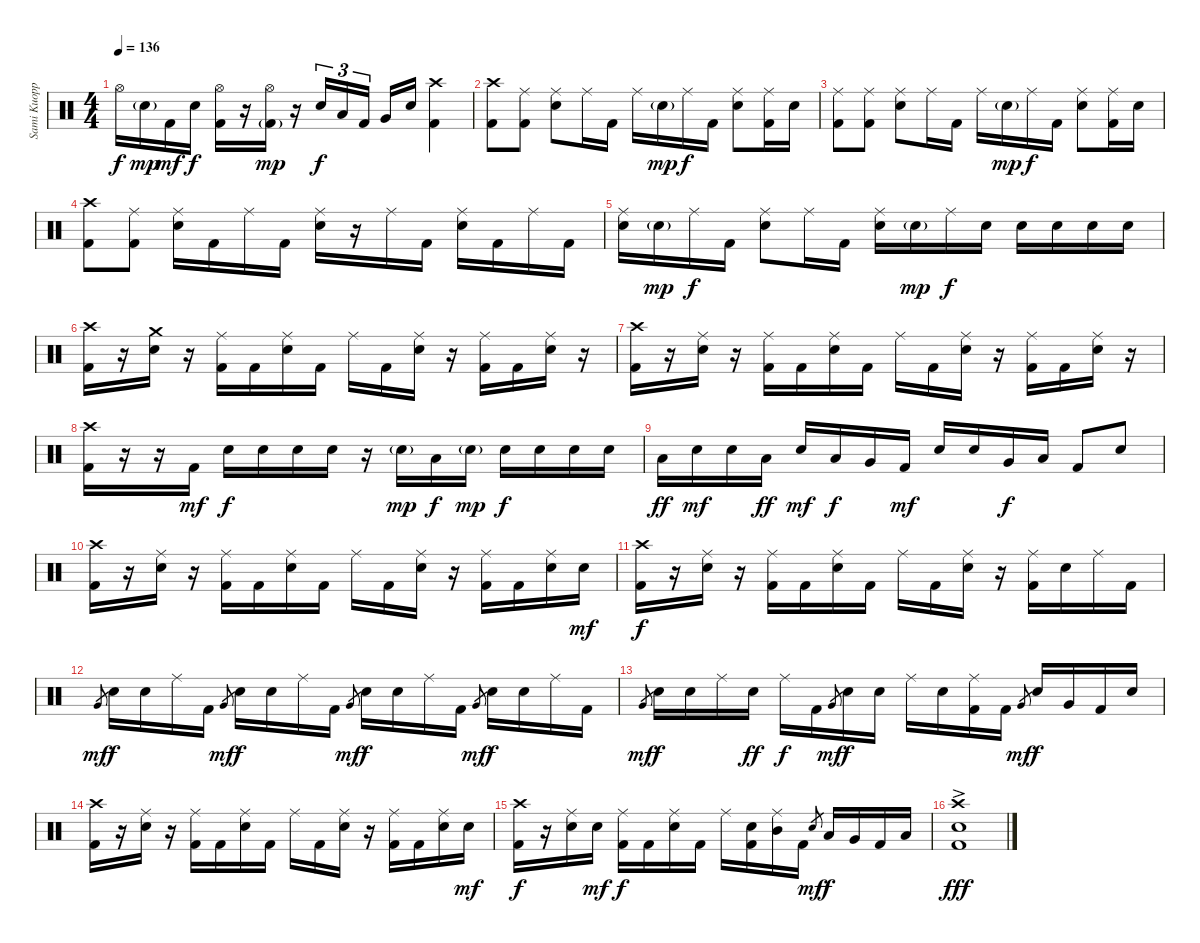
\track ("Sami Kuoppamäki - Drums" "Sami Kuopp") {instrument percussion}
\staff {score}
\articulation defaults
\ts (4 4)
\tempo 136
\clef neutral
\ks c "Hi-Hat (open)".16{dy f} "Snare (hit) 2"{g}.16{dy mp} "Kick (hit) 2".16{dy mf} "Snare (hit) 2".16{dy f}
("Hi-Hat (open)" "Kick (hit) 2").16 r.16 ("Hi-Hat (open)" "Kick (hit) 2"{g}).16{dy mp} r.16 "Snare (hit) 2".16{tu (3 2) dy f} "Low Tom (hit)".16{tu (3 2)} "Kick (hit) 2".16{tu (3 2)} "Very Low Tom (hit)".16 "Snare (hit) 2".16 ("Crash high (hit)" "Kick (hit) 2").4 |
("Crash high (hit)" "Kick (hit) 2").8 ("Ride (middle)" "Kick (hit) 2").8 ("Ride (middle)" "Snare (hit) 2").8 "Ride (middle)".16 "Kick (hit) 2".16 "Ride (middle)".16 "Snare (hit) 2"{g}.16{dy mp} "Ride (middle)".16{dy f} "Kick (hit) 2".16 ("Ride (middle)" "Snare (hit) 2").8 ("Ride (middle)" "Kick (hit) 2").16 "Snare (hit) 2".16 |
("Ride (middle)" "Kick (hit) 2").8 ("Ride (middle)" "Kick (hit) 2").8 ("Ride (middle)" "Snare (hit) 2").8 "Ride (middle)".16 "Kick (hit) 2".16 "Ride (middle)".16 "Snare (hit) 2"{g}.16{dy mp} "Ride (middle)".16{dy f} "Kick (hit) 2".16 ("Ride (middle)" "Snare (hit) 2").8 ("Ride (middle)" "Kick (hit) 2").16 "Snare (hit) 2".16 |
("Crash high (hit)" "Kick (hit) 2").8 ("Ride (middle)" "Kick (hit) 2").8 ("Ride (middle)" "Snare (hit) 2").16 "Kick (hit) 2".16 "Ride (middle)".16 "Kick (hit) 2".16 ("Ride (middle)" "Snare (hit) 2").16 r.16 "Ride (middle)".16 "Kick (hit) 2".16 ("Ride (middle)" "Snare (hit) 2").16 "Kick (hit) 2".16 "Ride (middle)".16 "Kick (hit) 2".16 |
("Ride (middle)" "Snare (hit) 2").16 "Snare (hit) 2"{g}.16{dy mp} "Ride (middle)".16{dy f} "Kick (hit) 2".16 ("Ride (middle)" "Snare (hit) 2").8 "Ride (middle)".16 "Kick (hit) 2".16 ("Ride (middle)" "Snare (hit) 2").16 "Snare (hit) 2"{g}.16{dy mp} "Ride (middle)".16{dy f} "Snare (hit) 2".16 "Snare (hit) 2".16 "Snare (hit) 2".16 "Snare (hit) 2".16 "Snare (hit) 2".16 |
("Crash high (hit)" "Kick (hit) 2").16 r.16 ("Crash medium (hit)" "Snare (hit) 2").16 r.16 ("Ride (middle)" "Kick (hit) 2").16 "Kick (hit) 2".16 ("Ride (middle)" "Snare (hit) 2").16 "Kick (hit) 2".16 "Ride (middle)".16 "Kick (hit) 2".16 ("Ride (middle)" "Snare (hit) 2").16 r.16 ("Ride (middle)" "Kick (hit) 2").16 "Kick (hit) 2".16 ("Ride (middle)" "Snare (hit) 2").16 r.16 |
("Crash high (hit)" "Kick (hit) 2").16 r.16 ("Ride (middle)" "Snare (hit) 2").16 r.16 ("Ride (middle)" "Kick (hit) 2").16 "Kick (hit) 2".16 ("Ride (middle)" "Snare (hit) 2").16 "Kick (hit) 2".16 "Ride (middle)".16 "Kick (hit) 2".16 ("Ride (middle)" "Snare (hit) 2").16 r.16 ("Ride (middle)" "Kick (hit) 2").16 "Kick (hit) 2".16 ("Ride (middle)" "Snare (hit) 2").16 r.16 |
("Crash high (hit)" "Kick (hit) 2").16 r.16 r.16 "Kick (hit) 2".16{dy mf} "Snare (hit) 2".16{dy f} "Snare (hit) 2".16 "Snare (hit) 2".16 "Snare (hit) 2".16 r.16 "Snare (hit) 2"{g}.16{dy mp} "Low Tom (hit)".16{dy f} "Snare (hit) 2"{g}.16{dy mp} "Snare (hit) 2".16{dy f} "Snare (hit) 2".16 "Snare (hit) 2".16 "Snare (hit) 2".16 |
"Low Tom (hit)".16{dy ff} "Snare (hit) 2".16{dy mf} "Snare (hit) 2".16 "Low Tom (hit)".16{dy ff} "Snare (hit) 2".16{dy mf} "Low Tom (hit)".16{dy f} "Very Low Tom (hit)".16 "Kick (hit) 2".16{dy mf} "Snare (hit) 2".16 "Snare (hit) 2".16 "Very Low Tom (hit)".16{dy f} "Low Floor Tom (hit)".16 "Kick (hit) 2".8 "Snare (hit) 2".8 |
("Crash high (hit)" "Kick (hit) 2").16 r.16 ("Ride (middle)" "Snare (hit) 2").16 r.16 ("Ride (middle)" "Kick (hit) 2").16 "Kick (hit) 2".16 ("Ride (middle)" "Snare (hit) 2").16 "Kick (hit) 2".16 "Ride (middle)".16 "Kick (hit) 2".16 ("Ride (middle)" "Snare (hit) 2").16 r.16 ("Ride (middle)" "Kick (hit) 2").16 "Kick (hit) 2".16 ("Ride (middle)" "Snare (hit) 2").16 "Snare (hit) 2".16{dy mf} |
("Crash high (hit)" "Kick (hit) 2").16{dy f} r.16 ("Ride (middle)" "Snare (hit) 2").16 r.16 ("Ride (middle)" "Kick (hit) 2").16 "Kick (hit) 2".16 ("Ride (middle)" "Snare (hit) 2").16 "Kick (hit) 2".16 "Ride (middle)".16 "Kick (hit) 2".16 ("Ride (middle)" "Snare (hit) 2").16 r.16 ("Ride (middle)" "Kick (hit) 2").16 "Snare (hit) 2".16 "Ride (middle)".16 "Kick (hit) 2".16 |
"Very Low Tom (hit)".8{gr dy mf} "Snare (hit) 2".16{dy f} "Snare (hit) 2".16 "Ride (middle)".16 "Kick (hit) 2".16 "Very Low Tom (hit)".8{gr dy mf} "Snare (hit) 2".16{dy f} "Snare (hit) 2".16 "Ride (middle)".16 "Kick (hit) 2".16 "Very Low Tom (hit)".8{gr dy mf} "Snare (hit) 2".16{dy f} "Snare (hit) 2".16 "Ride (middle)".16 "Kick (hit) 2".16 "Very Low Tom (hit)".8{gr dy mf} "Snare (hit) 2".16{dy f} "Snare (hit) 2".16 "Ride (middle)".16 "Kick (hit) 2".16 |
"Very Low Tom (hit)".8{gr dy mf} "Snare (hit) 2".16{dy f} "Snare (hit) 2".16 "Ride (middle)".16 "Snare (hit) 2".16{dy ff} "Ride (middle)".16{dy f} "Kick (hit) 2".16 "Very Low Tom (hit)".8{gr dy mf} "Snare (hit) 2".16{dy f} "Snare (hit) 2".16 "Ride (middle)".16 "Snare (hit) 2".16 ("Ride (middle)" "Kick (hit) 2").16 "Kick (hit) 2".16 "Very Low Tom (hit)".8{gr dy mf} "Snare (hit) 2".16{dy f} "Very Low Tom (hit)".16 "Kick (hit) 2".16 "Snare (hit) 2".16 |
("Crash high (hit)" "Kick (hit) 2").16 r.16 ("Ride (middle)" "Snare (hit) 2").16 r.16 ("Ride (middle)" "Kick (hit) 2").16 "Kick (hit) 2".16 ("Ride (middle)" "Snare (hit) 2").16 "Kick (hit) 2".16 "Ride (middle)".16 "Kick (hit) 2".16 ("Ride (middle)" "Snare (hit) 2").16 r.16 ("Ride (middle)" "Kick (hit) 2").16 "Kick (hit) 2".16 ("Ride (middle)" "Snare (hit) 2").16 "Snare (hit) 2".16{dy mf} |
("Crash high (hit)" "Kick (hit) 2").16{dy f} r.16 ("Ride (middle)" "Snare (hit) 2").16 "Snare (hit) 2".16{dy mf} ("Ride (middle)" "Kick (hit) 2").16{dy f} "Kick (hit) 2".16 ("Ride (middle)" "Snare (hit) 2").16 "Kick (hit) 2".16 "Ride (middle)".16 ("Snare (hit) 2" "Kick (hit) 2").16 ("Ride (middle)" "Mid Tom (hit)").16 "Kick (hit) 2".16 "Snare (hit) 2".8{gr dy mf} "Low Tom (hit)".16{dy f} "Very Low Tom (hit)".16 "Kick (hit) 2".16 "Low Floor Tom (hit)".16 |
("Crash high (hit)"{ac} "Snare (hit) 2"{ac} "Kick (hit) 2").1{dy fff}
